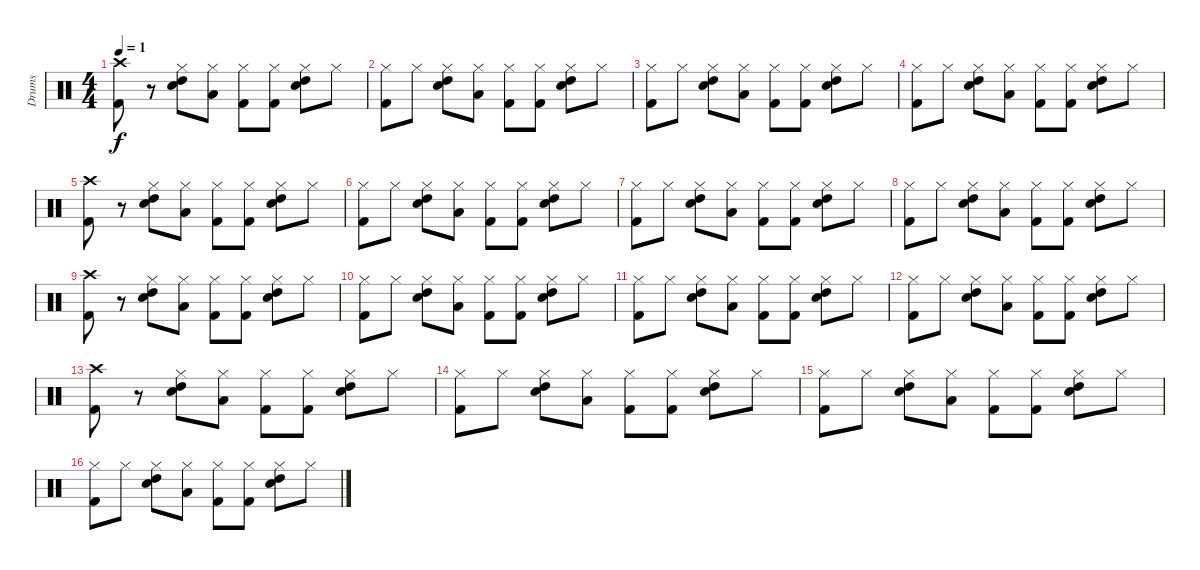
\track ("Drums" "Drums") {instrument percussion}
\staff {score}
\articulation defaults
\ts (4 4)
\tempo 1
\clef neutral
\ks c
("Crash high (hit)" "Kick (hit) 2").8{dy f} r.8 ("Hi-Hat (closed)" "Snare (hit) 2" "High Tom (hit)").8 ("Hi-Hat (closed)" "Low Tom (hit)").8 ("Hi-Hat (closed)" "Kick (hit) 2").8 ("Hi-Hat (closed)" "Kick (hit) 2").8 ("Hi-Hat (closed)" "Snare (hit) 2" "High Tom (hit)").8 "Hi-Hat (closed)".8 |
("Hi-Hat (closed)" "Kick (hit) 2").8 "Hi-Hat (closed)".8 ("Hi-Hat (closed)" "Snare (hit) 2" "High Tom (hit)").8 ("Hi-Hat (closed)" "Low Tom (hit)").8 ("Hi-Hat (closed)" "Kick (hit) 2").8 ("Hi-Hat (closed)" "Kick (hit) 2").8 ("Hi-Hat (closed)" "Snare (hit) 2" "High Tom (hit)").8 "Hi-Hat (closed)".8 |
("Hi-Hat (closed)" "Kick (hit) 2").8 "Hi-Hat (closed)".8 ("Hi-Hat (closed)" "Snare (hit) 2" "High Tom (hit)").8 ("Hi-Hat (closed)" "Low Tom (hit)").8 ("Hi-Hat (closed)" "Kick (hit) 2").8 ("Hi-Hat (closed)" "Kick (hit) 2").8 ("Hi-Hat (closed)" "Snare (hit) 2" "High Tom (hit)").8 "Hi-Hat (closed)".8 |
("Hi-Hat (closed)" "Kick (hit) 2").8 "Hi-Hat (closed)".8 ("Hi-Hat (closed)" "Snare (hit) 2" "High Tom (hit)").8 ("Hi-Hat (closed)" "Low Tom (hit)").8 ("Hi-Hat (closed)" "Kick (hit) 2").8 ("Hi-Hat (closed)" "Kick (hit) 2").8 ("Hi-Hat (closed)" "Snare (hit) 2" "High Tom (hit)").8 "Hi-Hat (closed)".8 |
("Crash high (hit)" "Kick (hit) 2").8 r.8 ("Hi-Hat (closed)" "Snare (hit) 2" "High Tom (hit)").8 ("Hi-Hat (closed)" "Low Tom (hit)").8 ("Hi-Hat (closed)" "Kick (hit) 2").8 ("Hi-Hat (closed)" "Kick (hit) 2").8 ("Hi-Hat (closed)" "Snare (hit) 2" "High Tom (hit)").8 "Hi-Hat (closed)".8 |
("Hi-Hat (closed)" "Kick (hit) 2").8 "Hi-Hat (closed)".8 ("Hi-Hat (closed)" "Snare (hit) 2" "High Tom (hit)").8 ("Hi-Hat (closed)" "Low Tom (hit)").8 ("Hi-Hat (closed)" "Kick (hit) 2").8 ("Hi-Hat (closed)" "Kick (hit) 2").8 ("Hi-Hat (closed)" "Snare (hit) 2" "High Tom (hit)").8 "Hi-Hat (closed)".8 |
("Hi-Hat (closed)" "Kick (hit) 2").8 "Hi-Hat (closed)".8 ("Hi-Hat (closed)" "Snare (hit) 2" "High Tom (hit)").8 ("Hi-Hat (closed)" "Low Tom (hit)").8 ("Hi-Hat (closed)" "Kick (hit) 2").8 ("Hi-Hat (closed)" "Kick (hit) 2").8 ("Hi-Hat (closed)" "Snare (hit) 2" "High Tom (hit)").8 "Hi-Hat (closed)".8 |
("Hi-Hat (closed)" "Kick (hit) 2").8 "Hi-Hat (closed)".8 ("Hi-Hat (closed)" "Snare (hit) 2" "High Tom (hit)").8 ("Hi-Hat (closed)" "Low Tom (hit)").8 ("Hi-Hat (closed)" "Kick (hit) 2").8 ("Hi-Hat (closed)" "Kick (hit) 2").8 ("Hi-Hat (closed)" "Snare (hit) 2" "High Tom (hit)").8 "Hi-Hat (closed)".8 |
("Crash high (hit)" "Kick (hit) 2").8 r.8 ("Hi-Hat (closed)" "Snare (hit) 2" "High Tom (hit)").8 ("Hi-Hat (closed)" "Low Tom (hit)").8 ("Hi-Hat (closed)" "Kick (hit) 2").8 ("Hi-Hat (closed)" "Kick (hit) 2").8 ("Hi-Hat (closed)" "Snare (hit) 2" "High Tom (hit)").8 "Hi-Hat (closed)".8 |
("Hi-Hat (closed)" "Kick (hit) 2").8 "Hi-Hat (closed)".8 ("Hi-Hat (closed)" "Snare (hit) 2" "High Tom (hit)").8 ("Hi-Hat (closed)" "Low Tom (hit)").8 ("Hi-Hat (closed)" "Kick (hit) 2").8 ("Hi-Hat (closed)" "Kick (hit) 2").8 ("Hi-Hat (closed)" "Snare (hit) 2" "High Tom (hit)").8 "Hi-Hat (closed)".8 |
("Hi-Hat (closed)" "Kick (hit) 2").8 "Hi-Hat (closed)".8 ("Hi-Hat (closed)" "Snare (hit) 2" "High Tom (hit)").8 ("Hi-Hat (closed)" "Low Tom (hit)").8 ("Hi-Hat (closed)" "Kick (hit) 2").8 ("Hi-Hat (closed)" "Kick (hit) 2").8 ("Hi-Hat (closed)" "Snare (hit) 2" "High Tom (hit)").8 "Hi-Hat (closed)".8 |
("Hi-Hat (closed)" "Kick (hit) 2").8 "Hi-Hat (closed)".8 ("Hi-Hat (closed)" "Snare (hit) 2" "High Tom (hit)").8 ("Hi-Hat (closed)" "Low Tom (hit)").8 ("Hi-Hat (closed)" "Kick (hit) 2").8 ("Hi-Hat (closed)" "Kick (hit) 2").8 ("Hi-Hat (closed)" "Snare (hit) 2" "High Tom (hit)").8 "Hi-Hat (closed)".8 |
("Crash high (hit)" "Kick (hit) 2").8 r.8 ("Hi-Hat (closed)" "Snare (hit) 2" "High Tom (hit)").8 ("Hi-Hat (closed)" "Low Tom (hit)").8 ("Hi-Hat (closed)" "Kick (hit) 2").8 ("Hi-Hat (closed)" "Kick (hit) 2").8 ("Hi-Hat (closed)" "Snare (hit) 2" "High Tom (hit)").8 "Hi-Hat (closed)".8 |
("Hi-Hat (closed)" "Kick (hit) 2").8 "Hi-Hat (closed)".8 ("Hi-Hat (closed)" "Snare (hit) 2" "High Tom (hit)").8 ("Hi-Hat (closed)" "Low Tom (hit)").8 ("Hi-Hat (closed)" "Kick (hit) 2").8 ("Hi-Hat (closed)" "Kick (hit) 2").8 ("Hi-Hat (closed)" "Snare (hit) 2" "High Tom (hit)").8 "Hi-Hat (closed)".8 |
("Hi-Hat (closed)" "Kick (hit) 2").8 "Hi-Hat (closed)".8 ("Hi-Hat (closed)" "Snare (hit) 2" "High Tom (hit)").8 ("Hi-Hat (closed)" "Low Tom (hit)").8 ("Hi-Hat (closed)" "Kick (hit) 2").8 ("Hi-Hat (closed)" "Kick (hit) 2").8 ("Hi-Hat (closed)" "Snare (hit) 2" "High Tom (hit)").8 "Hi-Hat (closed)".8 |
("Hi-Hat (closed)" "Kick (hit) 2").8 "Hi-Hat (closed)".8 ("Hi-Hat (closed)" "Snare (hit) 2" "High Tom (hit)").8 ("Hi-Hat (closed)" "Low Tom (hit)").8 ("Hi-Hat (closed)" "Kick (hit) 2").8 ("Hi-Hat (closed)" "Kick (hit) 2").8 ("Hi-Hat (closed)" "Snare (hit) 2" "High Tom (hit)").8 "Hi-Hat (closed)".8
